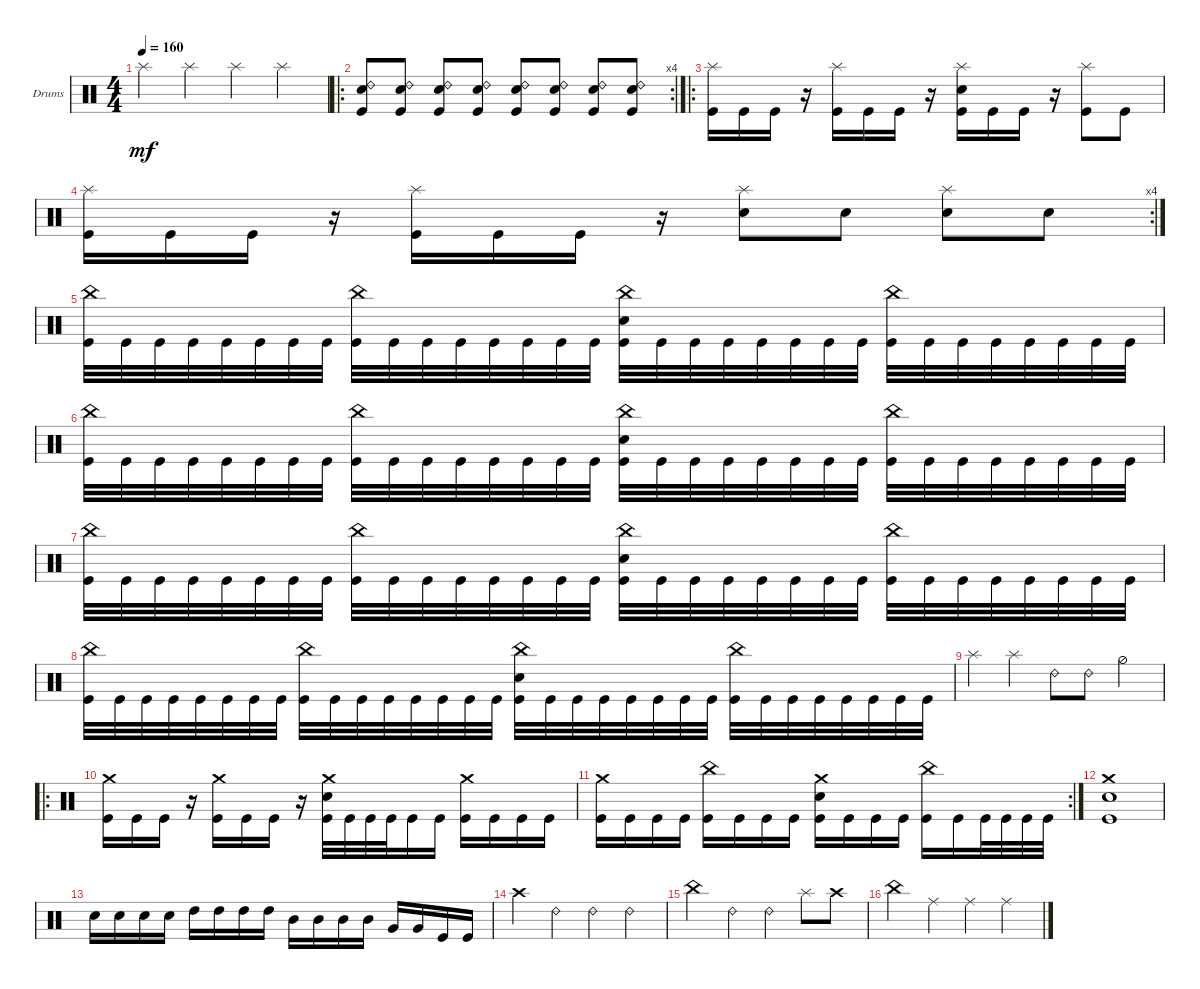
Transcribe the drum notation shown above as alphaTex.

\defaultSystemsLayout 4
\bracketExtendMode groupsimilarinstruments
\firstSystemTrackNameOrientation horizontal
\otherSystemsTrackNameOrientation horizontal
\track ("Drumkit" "Drums") {instrument percussion}
\staff {score}
\articulation defaults
\ts (4 4)
\tempo 160
\clef neutral
\ks c "Splash (hit)".4{dy mf} "Splash (hit)".4 "Splash (hit)".4 "Splash (hit)".4
|
\ro
\rc 4
("Kick (hit)" "Snare (hit) 2" "Ride (bell) 2").8 ("Kick (hit)" "Snare (hit) 2" "Ride (bell) 2").8 ("Kick (hit)" "Snare (hit) 2" "Ride (bell) 2").8 ("Kick (hit)" "Snare (hit) 2" "Ride (bell) 2").8 ("Kick (hit)" "Snare (hit) 2" "Ride (bell) 2").8 ("Kick (hit)" "Snare (hit) 2" "Ride (bell) 2").8 ("Kick (hit)" "Snare (hit) 2" "Ride (bell) 2").8 ("Kick (hit)" "Snare (hit) 2" "Ride (bell) 2").8 |
\ro
("Kick (hit)" "Splash (hit)").16 "Kick (hit)".16 "Kick (hit)".16 r.16 ("Kick (hit)" "Splash (hit)").16 "Kick (hit)".16 "Kick (hit)".16 r.16 ("Kick (hit)" "Splash (hit)" "Snare (hit) 2").16 "Kick (hit)".16 "Kick (hit)".16 r.16 ("Splash (hit)" "Kick (hit)").8 "Kick (hit)".8 |
\rc 4
("Kick (hit)" "Splash (hit)").16 "Kick (hit)".16 "Kick (hit)".16 r.16 ("Kick (hit)" "Splash (hit)").16 "Kick (hit)".16 "Kick (hit)".16 r.16 ("Splash (hit)" "Snare (hit) 2").8 "Snare (hit) 2".8 ("Snare (hit) 2" "Splash (hit)").8 "Snare (hit) 2".8 |
("China (hit)" "Kick (hit)").32 "Kick (hit)".32 "Kick (hit)".32 "Kick (hit)".32 "Kick (hit)".32 "Kick (hit)".32 "Kick (hit)".32 "Kick (hit)".32 ("Kick (hit)" "China (hit)").32 "Kick (hit)".32 "Kick (hit)".32 "Kick (hit)".32 "Kick (hit)".32 "Kick (hit)".32 "Kick (hit)".32 "Kick (hit)".32 ("Kick (hit)" "China (hit)" "Snare (hit) 2").32 "Kick (hit)".32 "Kick (hit)".32 "Kick (hit)".32 "Kick (hit)".32 "Kick (hit)".32 "Kick (hit)".32 "Kick (hit)".32 ("Kick (hit)" "China (hit)").32 "Kick (hit)".32 "Kick (hit)".32 "Kick (hit)".32 "Kick (hit)".32 "Kick (hit)".32 "Kick (hit)".32 "Kick (hit)".32 |
("China (hit)" "Kick (hit)").32 "Kick (hit)".32 "Kick (hit)".32 "Kick (hit)".32 "Kick (hit)".32 "Kick (hit)".32 "Kick (hit)".32 "Kick (hit)".32 ("Kick (hit)" "China (hit)").32 "Kick (hit)".32 "Kick (hit)".32 "Kick (hit)".32 "Kick (hit)".32 "Kick (hit)".32 "Kick (hit)".32 "Kick (hit)".32 ("Kick (hit)" "China (hit)" "Snare (hit) 2").32 "Kick (hit)".32 "Kick (hit)".32 "Kick (hit)".32 "Kick (hit)".32 "Kick (hit)".32 "Kick (hit)".32 "Kick (hit)".32 ("Kick (hit)" "China (hit)").32 "Kick (hit)".32 "Kick (hit)".32 "Kick (hit)".32 "Kick (hit)".32 "Kick (hit)".32 "Kick (hit)".32 "Kick (hit)".32 |
("China (hit)" "Kick (hit)").32 "Kick (hit)".32 "Kick (hit)".32 "Kick (hit)".32 "Kick (hit)".32 "Kick (hit)".32 "Kick (hit)".32 "Kick (hit)".32 ("Kick (hit)" "China (hit)").32 "Kick (hit)".32 "Kick (hit)".32 "Kick (hit)".32 "Kick (hit)".32 "Kick (hit)".32 "Kick (hit)".32 "Kick (hit)".32 ("Kick (hit)" "China (hit)" "Snare (hit) 2").32 "Kick (hit)".32 "Kick (hit)".32 "Kick (hit)".32 "Kick (hit)".32 "Kick (hit)".32 "Kick (hit)".32 "Kick (hit)".32 ("Kick (hit)" "China (hit)").32 "Kick (hit)".32 "Kick (hit)".32 "Kick (hit)".32 "Kick (hit)".32 "Kick (hit)".32 "Kick (hit)".32 "Kick (hit)".32 |
("China (hit)" "Kick (hit)").32 "Kick (hit)".32 "Kick (hit)".32 "Kick (hit)".32 "Kick (hit)".32 "Kick (hit)".32 "Kick (hit)".32 "Kick (hit)".32 ("Kick (hit)" "China (hit)").32 "Kick (hit)".32 "Kick (hit)".32 "Kick (hit)".32 "Kick (hit)".32 "Kick (hit)".32 "Kick (hit)".32 "Kick (hit)".32 ("Kick (hit)" "China (hit)" "Snare (hit) 2").32 "Kick (hit)".32 "Kick (hit)".32 "Kick (hit)".32 "Kick (hit)".32 "Kick (hit)".32 "Kick (hit)".32 "Kick (hit)".32 ("Kick (hit)" "China (hit)").32 "Kick (hit)".32 "Kick (hit)".32 "Kick (hit)".32 "Kick (hit)".32 "Kick (hit)".32 "Kick (hit)".32 "Kick (hit)".32 |
"Splash (hit)".4 "Splash (hit)".4 "Ride (bell) 2".8 "Ride (bell) 2".8 "Hi-Hat (half)".4 |
\ro
("Kick (hit)" "Crash medium (hit)").16 "Kick (hit)".16 "Kick (hit)".16 r.16 ("Kick (hit)" "Crash medium (hit)").16 "Kick (hit)".16 "Kick (hit)".16 r.16 ("Snare (hit) 2" "Kick (hit)" "Crash medium (hit)").32 "Kick (hit)".32 "Kick (hit)".32 "Kick (hit)".32 "Kick (hit)".16 "Kick (hit)".16 ("Crash medium (hit)" "Kick (hit)").16 "Kick (hit)".16 "Kick (hit)".16 "Kick (hit)".16 |
\rc 2
("Kick (hit)" "Crash medium (hit)").16 "Kick (hit)".16 "Kick (hit)".16 "Kick (hit)".16 ("Kick (hit)" "China (hit)").16 "Kick (hit)".16 "Kick (hit)".16 "Kick (hit)".16 ("Kick (hit)" "Crash medium (hit)" "Snare (hit) 2").16 "Kick (hit)".16 "Kick (hit)".16 "Kick (hit)".16 ("Kick (hit)" "China (hit)").16 "Kick (hit)".16 "Kick (hit)".32 "Kick (hit)".32 "Kick (hit)".32 "Kick (hit)".32 |
("Kick (hit)" "Snare (hit) 2" "Crash medium (hit)").1 |
"Snare (hit) 2".16 "Snare (hit) 2".16 "Snare (hit) 2".16 "Snare (hit) 2".16 "High Tom (hit)".16 "High Tom (hit)".16 "High Tom (hit)".16 "High Tom (hit)".16 "Mid Tom (hit)".16 "Mid Tom (hit)".16 "Mid Tom (hit)".16 "Mid Tom (hit)".16 "Very Low Tom (hit)".16 "Very Low Tom (hit)".16 "Kick (hit)".16 "Kick (hit)".16 |
"Crash high (hit)".4 "Ride (bell) 2".4 "Ride (bell) 2".4 "Ride (bell) 2".4 |
"China (hit)".4 "Ride (bell) 2".4 "Ride (bell) 2".4 "Splash (hit)".8 "Crash high (hit)".8 |
"China (hit)".4 "Ride (middle)".4 "Ride (middle)".4 "Ride (middle)".4
